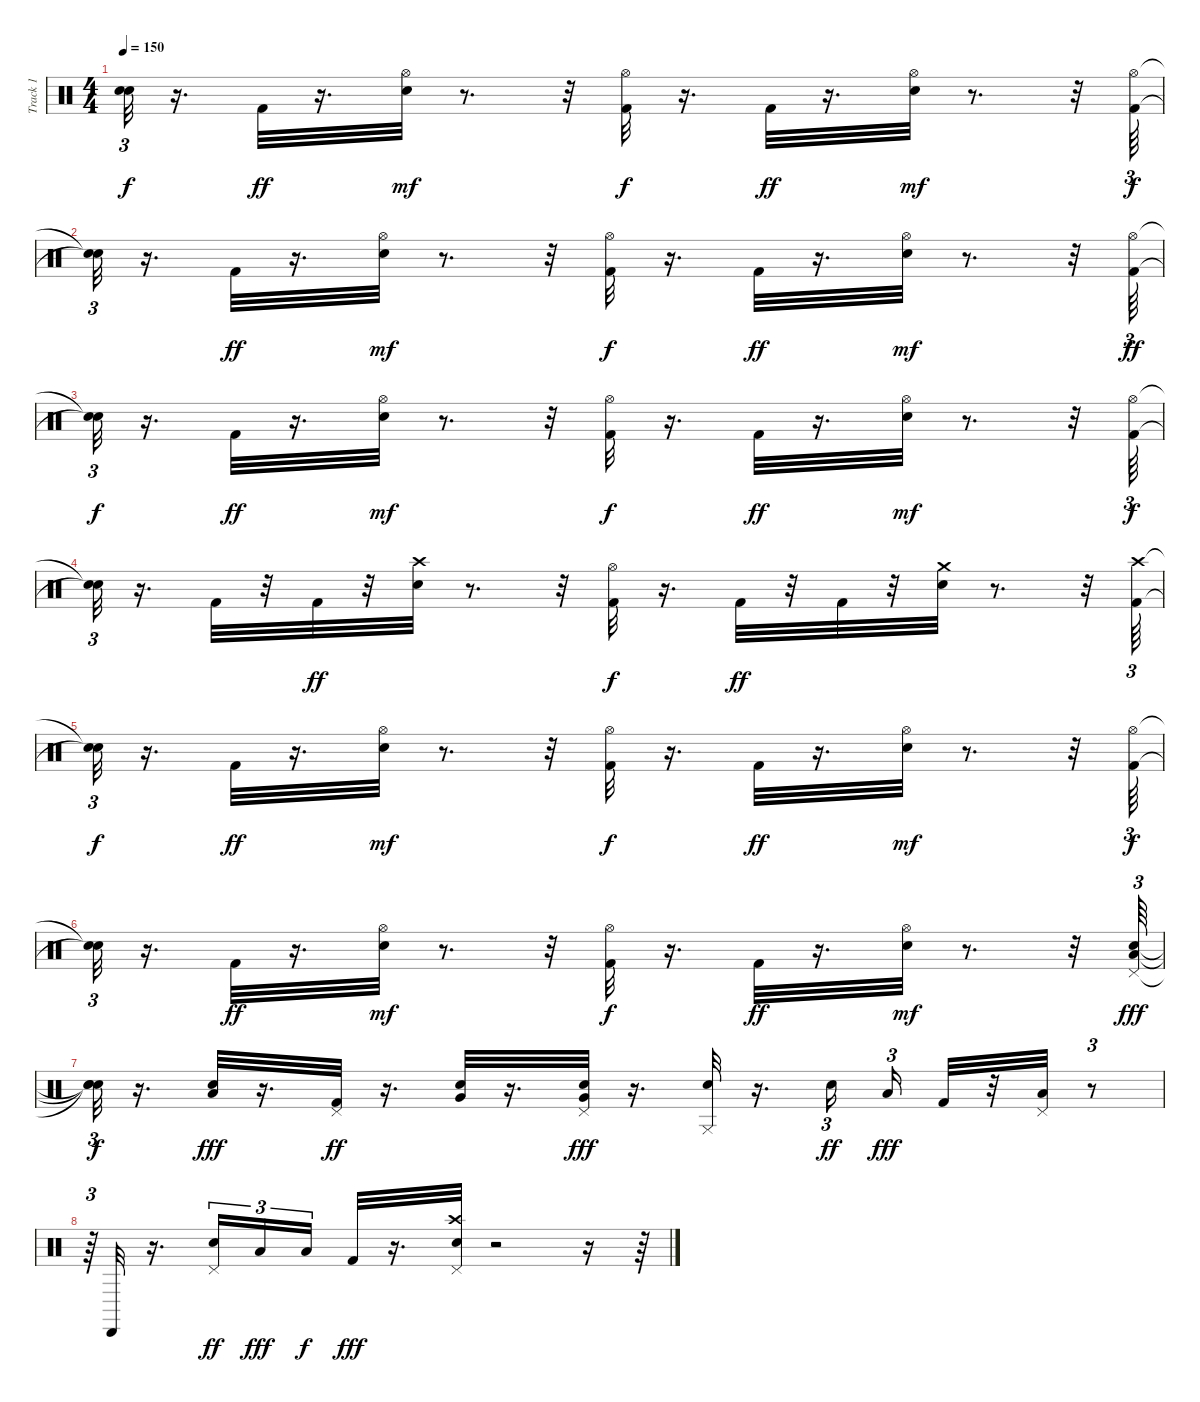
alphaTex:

\track ("Track 1" "Track 1") {instrument percussion}
\staff {score}
\articulation defaults
\ts (4 4)
\tempo 150
\clef neutral
\ks c
("Snare (hit)"{t} "Snare (hit)"{t}).32{tu (3 2) dy f} r.16{d} "Kick (hit) 2".32{dy ff} r.16{d} ("Electric Snare (hit)" "Hi-Hat (open)").32{dy mf} r.8{d} r.32 ("Hi-Hat (open)" "Kick (hit) 2").32{dy f} r.16{d} "Kick (hit) 2".32{dy ff} r.16{d} ("Electric Snare (hit)" "Hi-Hat (open)").32{dy mf} r.8{d} r.32 ("Hi-Hat (open)" "Kick (hit) 2").64{tu (3 2) dy f} |
("Snare (hit)"{t} "Snare (hit)"{t}).32{tu (3 2)} r.16{d} "Kick (hit) 2".32{dy ff} r.16{d} ("Electric Snare (hit)" "Hi-Hat (open)").32{dy mf} r.8{d} r.32 ("Kick (hit) 2" "Hi-Hat (open)").32{dy f} r.16{d} "Kick (hit) 2".32{dy ff} r.16{d} ("Electric Snare (hit)" "Hi-Hat (open)").32{dy mf} r.8{d} r.32 ("Hi-Hat (open)" "Kick (hit) 2").64{tu (3 2) dy ff} |
("Snare (hit)"{t} "Snare (hit)"{t}).32{tu (3 2) dy f} r.16{d} "Kick (hit) 2".32{dy ff} r.16{d} ("Electric Snare (hit)" "Hi-Hat (open)").32{dy mf} r.8{d} r.32 ("Hi-Hat (open)" "Kick (hit) 2").32{dy f} r.16{d} "Kick (hit) 2".32{dy ff} r.16{d} ("Electric Snare (hit)" "Hi-Hat (open)").32{dy mf} r.8{d} r.32 ("Hi-Hat (open)" "Kick (hit) 2").64{tu (3 2) dy f} |
("Snare (hit)"{t} "Snare (hit)"{t}).32{tu (3 2)} r.16{d} "Kick (hit) 2".32 r.32 "Kick (hit) 2".32{dy ff} r.32 ("Electric Snare (hit)" "Crash high (hit)").32 r.8{d} r.32 ("Kick (hit) 2" "Hi-Hat (open)").32{dy f} r.16{d} "Kick (hit) 2".32{dy ff} r.32 "Kick (hit) 2".32 r.32 ("Electric Snare (hit)" "Crash medium (hit)").32 r.8{d} r.32 ("Kick (hit) 2" "Crash high (hit)").64{tu (3 2)} |
("Snare (hit)"{t} "Snare (hit)"{t}).32{tu (3 2) dy f} r.16{d} "Kick (hit) 2".32{dy ff} r.16{d} ("Electric Snare (hit)" "Hi-Hat (open)").32{dy mf} r.8{d} r.32 ("Hi-Hat (open)" "Kick (hit) 2").32{dy f} r.16{d} "Kick (hit) 2".32{dy ff} r.16{d} ("Electric Snare (hit)" "Hi-Hat (open)").32{dy mf} r.8{d} r.32 ("Hi-Hat (open)" "Kick (hit) 2").64{tu (3 2) dy f} |
("Snare (hit)"{t} "Snare (hit)"{t}).32{tu (3 2)} r.16{d} "Kick (hit) 2".32{dy ff} r.16{d} ("Electric Snare (hit)" "Hi-Hat (open)").32{dy mf} r.8{d} r.32 ("Kick (hit) 2" "Hi-Hat (open)").32{dy f} r.16{d} "Kick (hit) 2".32{dy ff} r.16{d} ("Electric Snare (hit)" "Hi-Hat (open)").32{dy mf} r.8{d} r.32 ("Snare (hit) 2" "Low Tom (hit)" "Pedal Hi-Hat (hit)").64{tu (3 2) dy fff} |
("Snare (hit)"{t} "Snare (hit)"{t} "Snare (hit)"{t}).32{tu (3 2) dy f} r.16{d} ("Snare (hit) 2" "Low Tom (hit)").32{dy fff} r.16{d} ("Pedal Hi-Hat (hit)" "Kick (hit) 2").32{dy ff} r.16{d} ("Very Low Tom (hit)" "Snare (hit) 2").32 r.16{d} ("Pedal Hi-Hat (hit)" "Snare (hit) 2" "Very Low Tom (hit)").32{dy fff} r.16{d} ("Snare (hit) 2" "Conga high (slap)").32 r.16{d} "Snare (hit) 2".16{tu (3 2) dy ff} "Low Tom (hit)".16{tu (3 2) dy fff} "Kick (hit) 2".32 r.32 ("Pedal Hi-Hat (hit)" "Low Floor Tom (hit)").32 r.8{tu (3 2)} |
r.64{tu (3 2)} "Cabasa (hit)".32 r.16{d} ("Pedal Hi-Hat (hit)" "Snare (hit) 2").16{tu (3 2) dy ff} "Low Tom (hit)".16{tu (3 2) dy fff} "Low Floor Tom (hit)".16{tu (3 2) dy f} "Kick (hit) 2".32{dy fff} r.16{d} ("Pedal Hi-Hat (hit)" "Snare (hit) 2" "Crash high (hit)").32 r.2 r.16 r.64
